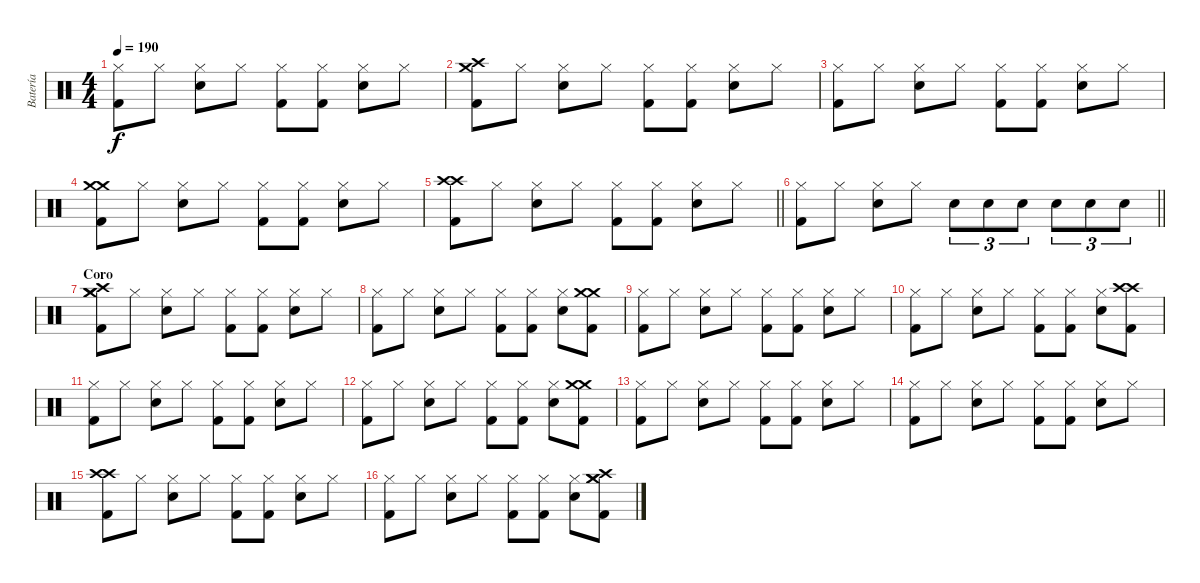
\track ("Batería" "Batería") {instrument percussion}
\staff {score}
\articulation defaults
\ts (4 4)
\tempo 190
\clef neutral
\ks c
("Hi-Hat (closed)" "Kick (hit) 2").8{dy f} "Hi-Hat (closed)".8 ("Hi-Hat (closed)" "Snare (hit) 2").8 "Hi-Hat (closed)".8 ("Hi-Hat (closed)" "Kick (hit) 2").8 ("Hi-Hat (closed)" "Kick (hit) 2").8 ("Hi-Hat (closed)" "Snare (hit) 2").8 "Hi-Hat (closed)".8 |
("Crash high (hit)" "Crash medium (hit)" "Kick (hit) 2").8 "Hi-Hat (closed)".8 ("Hi-Hat (closed)" "Snare (hit) 2").8 "Hi-Hat (closed)".8 ("Hi-Hat (closed)" "Kick (hit) 2").8 ("Hi-Hat (closed)" "Kick (hit) 2").8 ("Hi-Hat (closed)" "Snare (hit) 2").8 "Hi-Hat (closed)".8 |
("Hi-Hat (closed)" "Kick (hit) 2").8 "Hi-Hat (closed)".8 ("Hi-Hat (closed)" "Snare (hit) 2").8 "Hi-Hat (closed)".8 ("Hi-Hat (closed)" "Kick (hit) 2").8 ("Hi-Hat (closed)" "Kick (hit) 2").8 ("Hi-Hat (closed)" "Snare (hit) 2").8 "Hi-Hat (closed)".8 |
("Crash medium (hit)" "Crash medium (hit)" "Kick (hit) 2").8 "Hi-Hat (closed)".8 ("Hi-Hat (closed)" "Snare (hit) 2").8 "Hi-Hat (closed)".8 ("Hi-Hat (closed)" "Kick (hit) 2").8 ("Hi-Hat (closed)" "Kick (hit) 2").8 ("Hi-Hat (closed)" "Snare (hit) 2").8 "Hi-Hat (closed)".8 |
\barLineRight lightlight
("Crash high (hit)" "Crash high (hit)" "Kick (hit) 2").8 "Hi-Hat (closed)".8 ("Hi-Hat (closed)" "Snare (hit) 2").8 "Hi-Hat (closed)".8 ("Hi-Hat (closed)" "Kick (hit) 2").8 ("Hi-Hat (closed)" "Kick (hit) 2").8 ("Hi-Hat (closed)" "Snare (hit) 2").8 "Hi-Hat (closed)".8 |
\barLineRight lightlight
("Hi-Hat (closed)" "Kick (hit) 2").8 "Hi-Hat (closed)".8 ("Hi-Hat (closed)" "Snare (hit) 2").8 "Hi-Hat (closed)".8 "Snare (hit) 2".8{tu (3 2)} "Snare (hit) 2".8{tu (3 2)} "Snare (hit) 2".8{tu (3 2)} "Snare (hit) 2".8{tu (3 2)} "Snare (hit) 2".8{tu (3 2)} "Snare (hit) 2".8{tu (3 2)} |
\section ("" "Coro")
("Crash medium (hit)" "Crash high (hit)" "Crash medium (hit)" "Kick (hit) 2").8 "Hi-Hat (closed)".8 ("Hi-Hat (closed)" "Snare (hit) 2").8 "Hi-Hat (closed)".8 ("Hi-Hat (closed)" "Kick (hit) 2").8 ("Hi-Hat (closed)" "Kick (hit) 2").8 ("Hi-Hat (closed)" "Snare (hit) 2").8 "Hi-Hat (closed)".8 |
("Hi-Hat (closed)" "Kick (hit) 2").8 "Hi-Hat (closed)".8 ("Hi-Hat (closed)" "Snare (hit) 2").8 "Hi-Hat (closed)".8 ("Hi-Hat (closed)" "Kick (hit) 2").8 ("Hi-Hat (closed)" "Kick (hit) 2").8 ("Hi-Hat (closed)" "Snare (hit) 2").8 ("Crash medium (hit)" "Crash medium (hit)" "Kick (hit) 2").8 |
("Hi-Hat (closed)" "Kick (hit) 2").8 "Hi-Hat (closed)".8 ("Hi-Hat (closed)" "Snare (hit) 2").8 "Hi-Hat (closed)".8 ("Hi-Hat (closed)" "Kick (hit) 2").8 ("Hi-Hat (closed)" "Kick (hit) 2").8 ("Hi-Hat (closed)" "Snare (hit) 2").8 "Hi-Hat (closed)".8 |
("Hi-Hat (closed)" "Kick (hit) 2").8 "Hi-Hat (closed)".8 ("Hi-Hat (closed)" "Snare (hit) 2").8 "Hi-Hat (closed)".8 ("Hi-Hat (closed)" "Kick (hit) 2").8 ("Hi-Hat (closed)" "Kick (hit) 2").8 ("Hi-Hat (closed)" "Snare (hit) 2").8 ("Crash high (hit)" "Crash high (hit)" "Kick (hit) 2").8 |
("Hi-Hat (closed)" "Kick (hit) 2").8 "Hi-Hat (closed)".8 ("Hi-Hat (closed)" "Snare (hit) 2").8 "Hi-Hat (closed)".8 ("Hi-Hat (closed)" "Kick (hit) 2").8 ("Hi-Hat (closed)" "Kick (hit) 2").8 ("Hi-Hat (closed)" "Snare (hit) 2").8 "Hi-Hat (closed)".8 |
("Hi-Hat (closed)" "Kick (hit) 2").8 "Hi-Hat (closed)".8 ("Hi-Hat (closed)" "Snare (hit) 2").8 "Hi-Hat (closed)".8 ("Hi-Hat (closed)" "Kick (hit) 2").8 ("Hi-Hat (closed)" "Kick (hit) 2").8 ("Hi-Hat (closed)" "Snare (hit) 2").8 ("Crash medium (hit)" "Crash medium (hit)" "Kick (hit) 2").8 |
("Hi-Hat (closed)" "Kick (hit) 2").8 "Hi-Hat (closed)".8 ("Hi-Hat (closed)" "Snare (hit) 2").8 "Hi-Hat (closed)".8 ("Hi-Hat (closed)" "Kick (hit) 2").8 ("Hi-Hat (closed)" "Kick (hit) 2").8 ("Hi-Hat (closed)" "Snare (hit) 2").8 "Hi-Hat (closed)".8 |
("Hi-Hat (closed)" "Kick (hit) 2").8 "Hi-Hat (closed)".8 ("Hi-Hat (closed)" "Snare (hit) 2").8 "Hi-Hat (closed)".8 ("Hi-Hat (closed)" "Kick (hit) 2").8 ("Hi-Hat (closed)" "Kick (hit) 2").8 ("Hi-Hat (closed)" "Snare (hit) 2").8 "Hi-Hat (closed)".8 |
("Crash high (hit)" "Crash high (hit)" "Kick (hit) 2").8 "Hi-Hat (closed)".8 ("Hi-Hat (closed)" "Snare (hit) 2").8 "Hi-Hat (closed)".8 ("Hi-Hat (closed)" "Kick (hit) 2").8 ("Hi-Hat (closed)" "Kick (hit) 2").8 ("Hi-Hat (closed)" "Snare (hit) 2").8 "Hi-Hat (closed)".8 |
("Hi-Hat (closed)" "Kick (hit) 2").8 "Hi-Hat (closed)".8 ("Hi-Hat (closed)" "Snare (hit) 2").8 "Hi-Hat (closed)".8 ("Hi-Hat (closed)" "Kick (hit) 2").8 ("Hi-Hat (closed)" "Kick (hit) 2").8 ("Hi-Hat (closed)" "Snare (hit) 2").8 ("Crash medium (hit)" "Crash high (hit)" "Crash medium (hit)" "Kick (hit) 2").8
